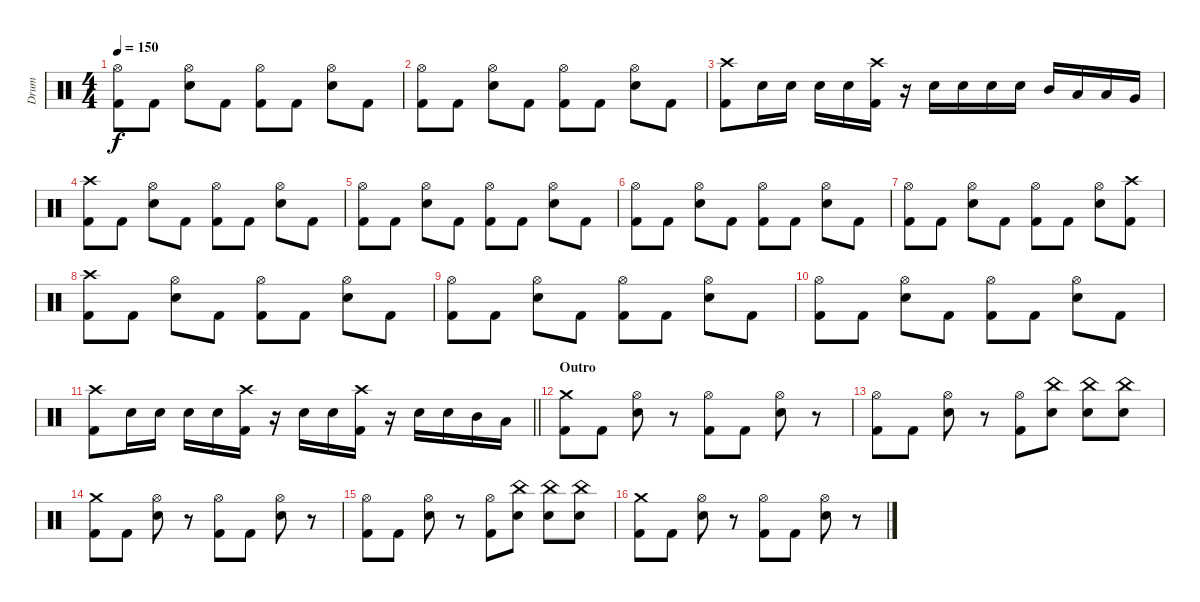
\track ("Drum" "Drum") {instrument percussion}
\staff {score}
\articulation defaults
\ts (4 4)
\tempo 150
\clef neutral
\ks c
("Kick (hit) 2" "Hi-Hat (open)").8{dy f} "Kick (hit) 2".8 ("Electric Snare (hit)" "Hi-Hat (open)").8 "Kick (hit) 2".8 ("Kick (hit) 2" "Hi-Hat (open)").8 "Kick (hit) 2".8 ("Electric Snare (hit)" "Hi-Hat (open)").8 "Kick (hit) 2".8 |
("Kick (hit) 2" "Hi-Hat (open)").8 "Kick (hit) 2".8 ("Electric Snare (hit)" "Hi-Hat (open)").8 "Kick (hit) 2".8 ("Kick (hit) 2" "Hi-Hat (open)").8 "Kick (hit) 2".8 ("Electric Snare (hit)" "Hi-Hat (open)").8 "Kick (hit) 2".8 |
("Kick (hit) 2" "Crash high (hit)").8 "Electric Snare (hit)".16 "Electric Snare (hit)".16 "Electric Snare (hit)".16 "Electric Snare (hit)".16 ("Kick (hit) 2" "Crash high (hit)").16 r.16 "Electric Snare (hit)".16 "Electric Snare (hit)".16 "Electric Snare (hit)".16 "Electric Snare (hit)".16 "Mid Tom (hit)".16 "Low Tom (hit)".16 "Low Tom (hit)".16 "Very Low Tom (hit)".16 |
("Kick (hit) 2" "Crash high (hit)").8 "Kick (hit) 2".8 ("Electric Snare (hit)" "Hi-Hat (open)").8 "Kick (hit) 2".8 ("Kick (hit) 2" "Hi-Hat (open)").8 "Kick (hit) 2".8 ("Electric Snare (hit)" "Hi-Hat (open)").8 "Kick (hit) 2".8 |
("Kick (hit) 2" "Hi-Hat (open)").8 "Kick (hit) 2".8 ("Electric Snare (hit)" "Hi-Hat (open)").8 "Kick (hit) 2".8 ("Kick (hit) 2" "Hi-Hat (open)").8 "Kick (hit) 2".8 ("Electric Snare (hit)" "Hi-Hat (open)").8 "Kick (hit) 2".8 |
("Kick (hit) 2" "Hi-Hat (open)").8 "Kick (hit) 2".8 ("Electric Snare (hit)" "Hi-Hat (open)").8 "Kick (hit) 2".8 ("Kick (hit) 2" "Hi-Hat (open)").8 "Kick (hit) 2".8 ("Electric Snare (hit)" "Hi-Hat (open)").8 "Kick (hit) 2".8 |
("Kick (hit) 2" "Hi-Hat (open)").8 "Kick (hit) 2".8 ("Electric Snare (hit)" "Hi-Hat (open)").8 "Kick (hit) 2".8 ("Kick (hit) 2" "Hi-Hat (open)").8 "Kick (hit) 2".8 ("Electric Snare (hit)" "Hi-Hat (open)").8 ("Kick (hit) 2" "Crash high (hit)").8 |
("Kick (hit) 2" "Crash high (hit)").8 "Kick (hit) 2".8 ("Electric Snare (hit)" "Hi-Hat (open)").8 "Kick (hit) 2".8 ("Kick (hit) 2" "Hi-Hat (open)").8 "Kick (hit) 2".8 ("Electric Snare (hit)" "Hi-Hat (open)").8 "Kick (hit) 2".8 |
("Kick (hit) 2" "Hi-Hat (open)").8 "Kick (hit) 2".8 ("Electric Snare (hit)" "Hi-Hat (open)").8 "Kick (hit) 2".8 ("Kick (hit) 2" "Hi-Hat (open)").8 "Kick (hit) 2".8 ("Electric Snare (hit)" "Hi-Hat (open)").8 "Kick (hit) 2".8 |
("Kick (hit) 2" "Hi-Hat (open)").8 "Kick (hit) 2".8 ("Electric Snare (hit)" "Hi-Hat (open)").8 "Kick (hit) 2".8 ("Kick (hit) 2" "Hi-Hat (open)").8 "Kick (hit) 2".8 ("Electric Snare (hit)" "Hi-Hat (open)").8 "Kick (hit) 2".8 |
\barLineRight lightlight
("Kick (hit) 2" "Crash high (hit)").8 "Electric Snare (hit)".16 "Electric Snare (hit)".16 "Electric Snare (hit)".16 "Electric Snare (hit)".16 ("Kick (hit) 2" "Crash high (hit)").16 r.16 "Electric Snare (hit)".16 "Electric Snare (hit)".16 ("Kick (hit) 2" "Crash high (hit)").16 r.16 "Electric Snare (hit)".16 "Electric Snare (hit)".16 "Mid Tom (hit)".16 "Low Tom (hit)".16 |
\section ("" "Outro")
("Kick (hit) 2" "Crash medium (hit)").8 "Kick (hit) 2".8 ("Electric Snare (hit)" "Hi-Hat (open)").8 r.8 ("Kick (hit) 2" "Hi-Hat (open)").8 "Kick (hit) 2".8 ("Electric Snare (hit)" "Hi-Hat (open)").8 r.8 |
("Kick (hit) 2" "Hi-Hat (open)").8 "Kick (hit) 2".8 ("Electric Snare (hit)" "Hi-Hat (open)").8 r.8 ("Kick (hit) 2" "Hi-Hat (open)").8 ("Electric Snare (hit)" "China (hit)").8 ("Electric Snare (hit)" "China (hit)").8 ("Electric Snare (hit)" "China (hit)").8 |
("Kick (hit) 2" "Crash medium (hit)").8 "Kick (hit) 2".8 ("Electric Snare (hit)" "Hi-Hat (open)").8 r.8 ("Kick (hit) 2" "Hi-Hat (open)").8 "Kick (hit) 2".8 ("Electric Snare (hit)" "Hi-Hat (open)").8 r.8 |
("Kick (hit) 2" "Hi-Hat (open)").8 "Kick (hit) 2".8 ("Electric Snare (hit)" "Hi-Hat (open)").8 r.8 ("Kick (hit) 2" "Hi-Hat (open)").8 ("Electric Snare (hit)" "China (hit)").8 ("Electric Snare (hit)" "China (hit)").8 ("Electric Snare (hit)" "China (hit)").8 |
("Kick (hit) 2" "Crash medium (hit)").8 "Kick (hit) 2".8 ("Electric Snare (hit)" "Hi-Hat (open)").8 r.8 ("Kick (hit) 2" "Hi-Hat (open)").8 "Kick (hit) 2".8 ("Electric Snare (hit)" "Hi-Hat (open)").8 r.8
